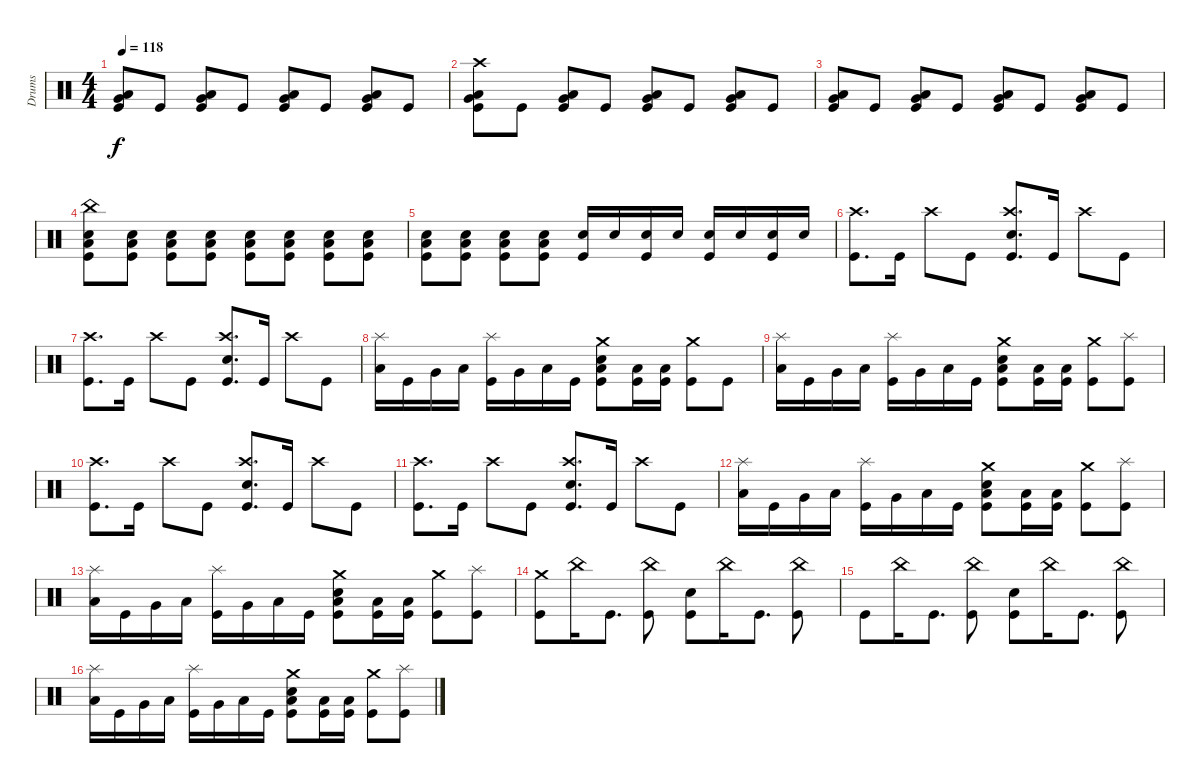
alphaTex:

\track ("Drums" "Drums") {instrument percussion}
\staff {score}
\articulation defaults
\ts (4 4)
\tempo 118
\clef neutral
\ks c
("Very Low Tom (hit)" "Low Floor Tom (hit)" "Kick (hit)").8{dy f} "Kick (hit)".8 ("Very Low Tom (hit)" "Low Floor Tom (hit)" "Kick (hit)").8 "Kick (hit)".8 ("Very Low Tom (hit)" "Low Floor Tom (hit)" "Kick (hit)").8 "Kick (hit)".8 ("Very Low Tom (hit)" "Low Floor Tom (hit)" "Kick (hit)").8 "Kick (hit)".8 |
("Crash high (hit)" "Very Low Tom (hit)" "Low Floor Tom (hit)" "Kick (hit)").8 "Kick (hit)".8 ("Very Low Tom (hit)" "Low Floor Tom (hit)" "Kick (hit)").8 "Kick (hit)".8 ("Very Low Tom (hit)" "Low Floor Tom (hit)" "Kick (hit)").8 "Kick (hit)".8 ("Very Low Tom (hit)" "Low Floor Tom (hit)" "Kick (hit)").8 "Kick (hit)".8 |
("Very Low Tom (hit)" "Low Floor Tom (hit)" "Kick (hit)").8 "Kick (hit)".8 ("Very Low Tom (hit)" "Low Floor Tom (hit)" "Kick (hit)").8 "Kick (hit)".8 ("Very Low Tom (hit)" "Low Floor Tom (hit)" "Kick (hit)").8 "Kick (hit)".8 ("Very Low Tom (hit)" "Low Floor Tom (hit)" "Kick (hit)").8 "Kick (hit)".8 |
("China (hit)" "Snare (hit) 2" "Low Floor Tom (hit)" "Kick (hit)").8 ("Snare (hit) 2" "Low Floor Tom (hit)" "Kick (hit)").8 ("Snare (hit) 2" "Low Floor Tom (hit)" "Kick (hit)").8 ("Snare (hit) 2" "Low Floor Tom (hit)" "Kick (hit)").8 ("Snare (hit) 2" "Low Floor Tom (hit)" "Kick (hit)").8 ("Snare (hit) 2" "Low Floor Tom (hit)" "Kick (hit)").8 ("Snare (hit) 2" "Low Floor Tom (hit)" "Kick (hit)").8 ("Snare (hit) 2" "Low Floor Tom (hit)" "Kick (hit)").8 |
("Snare (hit) 2" "Low Floor Tom (hit)" "Kick (hit)").8 ("Snare (hit) 2" "Low Floor Tom (hit)" "Kick (hit)").8 ("Snare (hit) 2" "Low Floor Tom (hit)" "Kick (hit)").8 ("Snare (hit) 2" "Low Floor Tom (hit)" "Kick (hit)").8 ("Snare (hit) 2" "Kick (hit)").16 "Snare (hit) 2".16 ("Snare (hit) 2" "Kick (hit)").16 "Snare (hit) 2".16 ("Snare (hit) 2" "Kick (hit)").16 "Snare (hit) 2".16 ("Snare (hit) 2" "Kick (hit)").16 "Snare (hit) 2".16 |
("Crash high (hit)" "Kick (hit)").8{d} "Kick (hit)".16 "Crash high (hit)".8 "Kick (hit)".8 ("Crash high (hit)" "Snare (hit) 2" "Kick (hit)").8{d} "Kick (hit)".16 "Crash high (hit)".8 "Kick (hit)".8 |
("Crash high (hit)" "Kick (hit)").8{d} "Kick (hit)".16 "Crash high (hit)".8 "Kick (hit)".8 ("Crash high (hit)" "Snare (hit) 2" "Kick (hit)").8{d} "Kick (hit)".16 "Crash high (hit)".8 "Kick (hit)".8 |
("Splash (hit)" "Low Floor Tom (hit)").16 "Kick (hit)".16 "Very Low Tom (hit)".16 "Low Floor Tom (hit)".16 ("Splash (hit)" "Kick (hit)").16 "Very Low Tom (hit)".16 "Low Floor Tom (hit)".16 "Kick (hit)".16 ("Crash medium (hit)" "Snare (hit) 2" "Low Floor Tom (hit)" "Kick (hit)").8 ("Low Tom (hit)" "Kick (hit)").16 ("Low Tom (hit)" "Kick (hit)").16 ("Crash medium (hit)" "Kick (hit)").8 "Kick (hit)".8 |
("Splash (hit)" "Low Floor Tom (hit)").16 "Kick (hit)".16 "Very Low Tom (hit)".16 "Low Floor Tom (hit)".16 ("Splash (hit)" "Kick (hit)").16 "Very Low Tom (hit)".16 "Low Floor Tom (hit)".16 "Kick (hit)".16 ("Crash medium (hit)" "Snare (hit) 2" "Low Floor Tom (hit)" "Kick (hit)").8 ("Low Tom (hit)" "Kick (hit)").16 ("Low Tom (hit)" "Kick (hit)").16 ("Crash medium (hit)" "Kick (hit)").8 ("Splash (hit)" "Kick (hit)").8 |
("Crash high (hit)" "Kick (hit)").8{d} "Kick (hit)".16 "Crash high (hit)".8 "Kick (hit)".8 ("Crash high (hit)" "Snare (hit) 2" "Kick (hit)").8{d} "Kick (hit)".16 "Crash high (hit)".8 "Kick (hit)".8 |
("Crash high (hit)" "Kick (hit)").8{d} "Kick (hit)".16 "Crash high (hit)".8 "Kick (hit)".8 ("Crash high (hit)" "Snare (hit) 2" "Kick (hit)").8{d} "Kick (hit)".16 "Crash high (hit)".8 "Kick (hit)".8 |
("Splash (hit)" "Low Floor Tom (hit)").16 "Kick (hit)".16 "Very Low Tom (hit)".16 "Low Floor Tom (hit)".16 ("Splash (hit)" "Kick (hit)").16 "Very Low Tom (hit)".16 "Low Floor Tom (hit)".16 "Kick (hit)".16 ("Crash medium (hit)" "Snare (hit) 2" "Low Floor Tom (hit)" "Kick (hit)").8 ("Low Tom (hit)" "Kick (hit)").16 ("Low Tom (hit)" "Kick (hit)").16 ("Crash medium (hit)" "Kick (hit)").8 ("Splash (hit)" "Kick (hit)").8 |
("Splash (hit)" "Low Floor Tom (hit)").16 "Kick (hit)".16 "Very Low Tom (hit)".16 "Low Floor Tom (hit)".16 ("Splash (hit)" "Kick (hit)").16 "Very Low Tom (hit)".16 "Low Floor Tom (hit)".16 "Kick (hit)".16 ("Crash medium (hit)" "Snare (hit) 2" "Low Floor Tom (hit)" "Kick (hit)").8 ("Low Tom (hit)" "Kick (hit)").16 ("Low Tom (hit)" "Kick (hit)").16 ("Crash medium (hit)" "Kick (hit)").8 ("Splash (hit)" "Kick (hit)").8 |
("Crash medium (hit)" "Kick (hit)").8 "China (hit)".16 "Kick (hit)".8{d} ("China (hit)" "Kick (hit)").8 ("Snare (hit) 2" "Kick (hit)").8 "China (hit)".16 "Kick (hit)".8{d} ("China (hit)" "Kick (hit)").8 |
"Kick (hit)".8 "China (hit)".16 "Kick (hit)".8{d} ("China (hit)" "Kick (hit)").8 ("Snare (hit) 2" "Kick (hit)").8 "China (hit)".16 "Kick (hit)".8{d} ("China (hit)" "Kick (hit)").8 |
("Splash (hit)" "Low Floor Tom (hit)").16 "Kick (hit)".16 "Very Low Tom (hit)".16 "Low Floor Tom (hit)".16 ("Splash (hit)" "Kick (hit)").16 "Very Low Tom (hit)".16 "Low Floor Tom (hit)".16 "Kick (hit)".16 ("Crash medium (hit)" "Snare (hit) 2" "Low Floor Tom (hit)" "Kick (hit)").8 ("Low Tom (hit)" "Kick (hit)").16 ("Low Tom (hit)" "Kick (hit)").16 ("Crash medium (hit)" "Kick (hit)").8 ("Splash (hit)" "Kick (hit)").8
